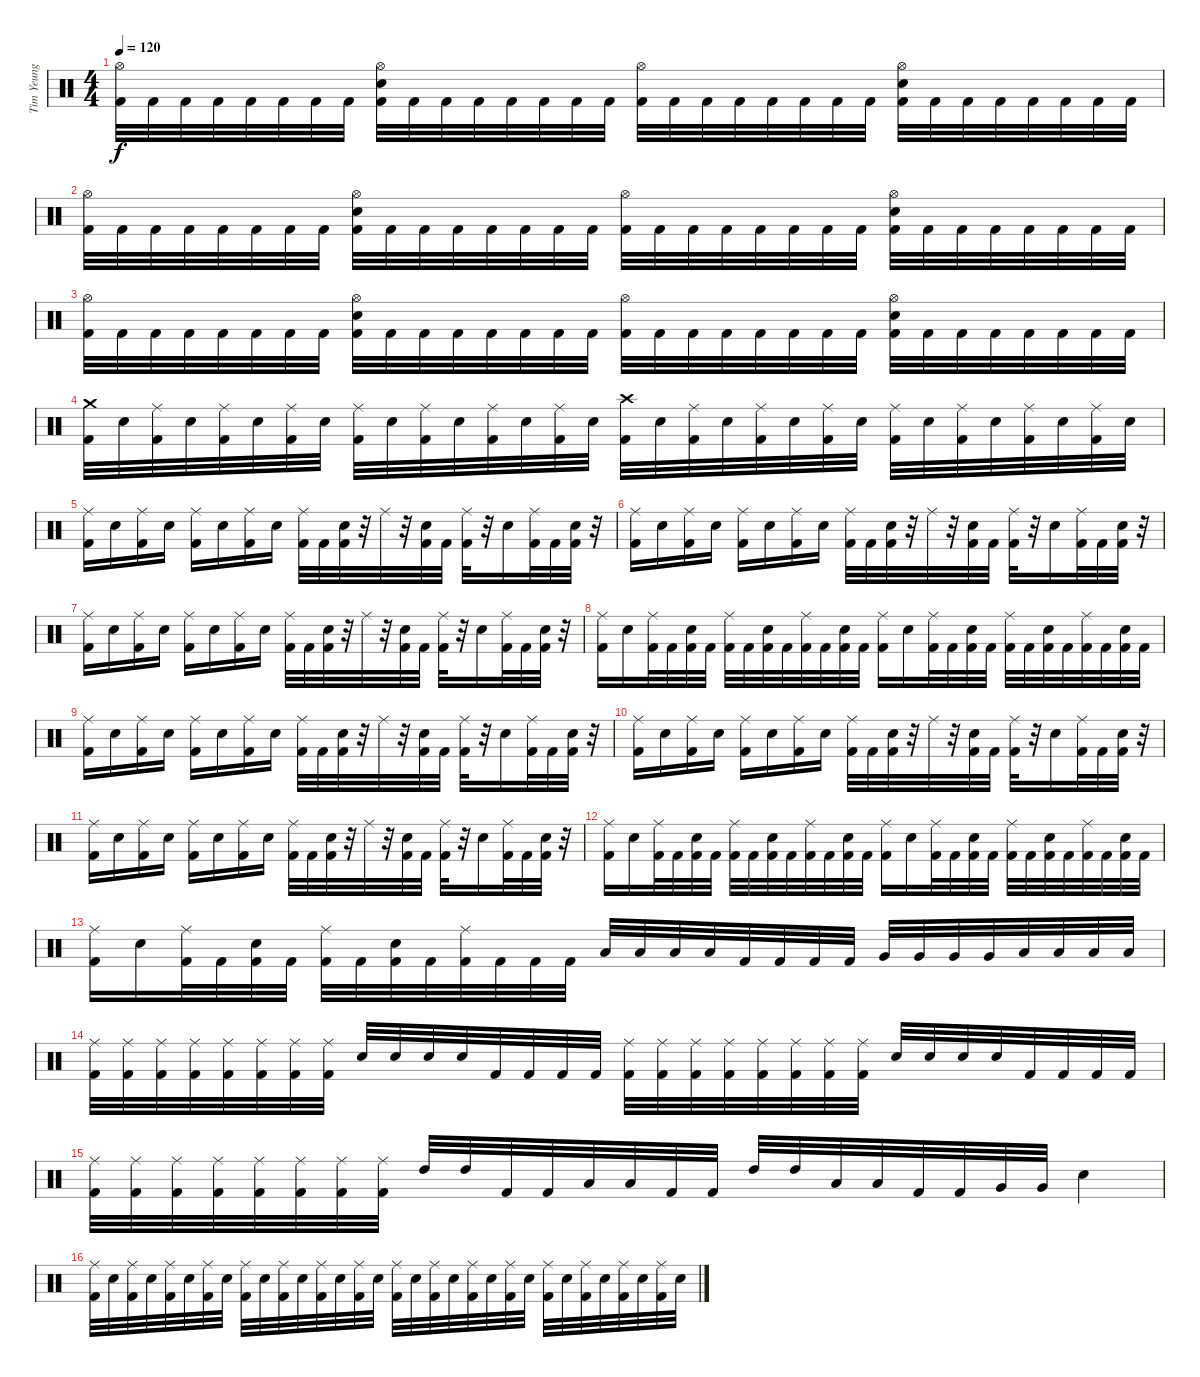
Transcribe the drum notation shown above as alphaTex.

\track ("Tim Yeung" "Tim Yeung") {instrument percussion}
\staff {score}
\articulation defaults
\ts (4 4)
\tempo 120
\clef neutral
\ks c
("Hi-Hat (open)" "Kick (hit) 2").32{dy f} "Kick (hit) 2".32 "Kick (hit) 2".32 "Kick (hit) 2".32 "Kick (hit) 2".32 "Kick (hit) 2".32 "Kick (hit) 2".32 "Kick (hit) 2".32 ("Hi-Hat (open)" "Electric Snare (hit)" "Kick (hit) 2").32 "Kick (hit) 2".32 "Kick (hit) 2".32 "Kick (hit) 2".32 "Kick (hit) 2".32 "Kick (hit) 2".32 "Kick (hit) 2".32 "Kick (hit) 2".32 ("Hi-Hat (open)" "Kick (hit) 2").32 "Kick (hit) 2".32 "Kick (hit) 2".32 "Kick (hit) 2".32 "Kick (hit) 2".32 "Kick (hit) 2".32 "Kick (hit) 2".32 "Kick (hit) 2".32 ("Hi-Hat (open)" "Electric Snare (hit)" "Kick (hit) 2").32 "Kick (hit) 2".32 "Kick (hit) 2".32 "Kick (hit) 2".32 "Kick (hit) 2".32 "Kick (hit) 2".32 "Kick (hit) 2".32 "Kick (hit) 2".32 |
("Hi-Hat (open)" "Kick (hit) 2").32 "Kick (hit) 2".32 "Kick (hit) 2".32 "Kick (hit) 2".32 "Kick (hit) 2".32 "Kick (hit) 2".32 "Kick (hit) 2".32 "Kick (hit) 2".32 ("Hi-Hat (open)" "Electric Snare (hit)" "Kick (hit) 2").32 "Kick (hit) 2".32 "Kick (hit) 2".32 "Kick (hit) 2".32 "Kick (hit) 2".32 "Kick (hit) 2".32 "Kick (hit) 2".32 "Kick (hit) 2".32 ("Hi-Hat (open)" "Kick (hit) 2").32 "Kick (hit) 2".32 "Kick (hit) 2".32 "Kick (hit) 2".32 "Kick (hit) 2".32 "Kick (hit) 2".32 "Kick (hit) 2".32 "Kick (hit) 2".32 ("Hi-Hat (open)" "Electric Snare (hit)" "Kick (hit) 2").32 "Kick (hit) 2".32 "Kick (hit) 2".32 "Kick (hit) 2".32 "Kick (hit) 2".32 "Kick (hit) 2".32 "Kick (hit) 2".32 "Kick (hit) 2".32 |
("Hi-Hat (open)" "Kick (hit) 2").32 "Kick (hit) 2".32 "Kick (hit) 2".32 "Kick (hit) 2".32 "Kick (hit) 2".32 "Kick (hit) 2".32 "Kick (hit) 2".32 "Kick (hit) 2".32 ("Hi-Hat (open)" "Electric Snare (hit)" "Kick (hit) 2").32 "Kick (hit) 2".32 "Kick (hit) 2".32 "Kick (hit) 2".32 "Kick (hit) 2".32 "Kick (hit) 2".32 "Kick (hit) 2".32 "Kick (hit) 2".32 ("Hi-Hat (open)" "Kick (hit) 2").32 "Kick (hit) 2".32 "Kick (hit) 2".32 "Kick (hit) 2".32 "Kick (hit) 2".32 "Kick (hit) 2".32 "Kick (hit) 2".32 "Kick (hit) 2".32 ("Hi-Hat (open)" "Electric Snare (hit)" "Kick (hit) 2").32 "Kick (hit) 2".32 "Kick (hit) 2".32 "Kick (hit) 2".32 "Kick (hit) 2".32 "Kick (hit) 2".32 "Kick (hit) 2".32 "Kick (hit) 2".32 |
("Crash medium (hit)" "Kick (hit) 2").32 "Electric Snare (hit)".32 ("Ride (middle)" "Kick (hit) 2").32 "Electric Snare (hit)".32 ("Ride (middle)" "Kick (hit) 2").32 "Electric Snare (hit)".32 ("Ride (middle)" "Kick (hit) 2").32 "Electric Snare (hit)".32 ("Ride (middle)" "Kick (hit) 2").32 "Electric Snare (hit)".32 ("Ride (middle)" "Kick (hit) 2").32 "Electric Snare (hit)".32 ("Ride (middle)" "Kick (hit) 2").32 "Electric Snare (hit)".32 ("Ride (middle)" "Kick (hit) 2").32 "Electric Snare (hit)".32 ("Crash high (hit)" "Kick (hit) 2").32 "Electric Snare (hit)".32 ("Ride (middle)" "Kick (hit) 2").32 "Electric Snare (hit)".32 ("Ride (middle)" "Kick (hit) 2").32 "Electric Snare (hit)".32 ("Ride (middle)" "Kick (hit) 2").32 "Electric Snare (hit)".32 ("Ride (middle)" "Kick (hit) 2").32 "Electric Snare (hit)".32 ("Ride (middle)" "Kick (hit) 2").32 "Electric Snare (hit)".32 ("Ride (middle)" "Kick (hit) 2").32 "Electric Snare (hit)".32 ("Ride (middle)" "Kick (hit) 2").32 "Electric Snare (hit)".32 |
("Ride (middle)" "Kick (hit) 2").16 "Electric Snare (hit)".16 ("Ride (middle)" "Kick (hit) 2").16 "Electric Snare (hit)".16 ("Ride (middle)" "Kick (hit) 2").16 "Electric Snare (hit)".16 ("Ride (middle)" "Kick (hit) 2").16 "Electric Snare (hit)".16 ("Ride (middle)" "Kick (hit) 2").32 "Kick (hit) 2".32 ("Electric Snare (hit)" "Kick (hit) 2").32 r.32 "Ride (middle)".32 r.32 ("Electric Snare (hit)" "Kick (hit) 2").32 "Kick (hit) 2".32 ("Ride (middle)" "Kick (hit) 2").32 r.32 "Electric Snare (hit)".16 ("Ride (middle)" "Kick (hit) 2").32 "Kick (hit) 2".32 ("Electric Snare (hit)" "Kick (hit) 2").32 r.32 |
("Ride (middle)" "Kick (hit) 2").16 "Electric Snare (hit)".16 ("Ride (middle)" "Kick (hit) 2").16 "Electric Snare (hit)".16 ("Ride (middle)" "Kick (hit) 2").16 "Electric Snare (hit)".16 ("Ride (middle)" "Kick (hit) 2").16 "Electric Snare (hit)".16 ("Ride (middle)" "Kick (hit) 2").32 "Kick (hit) 2".32 ("Electric Snare (hit)" "Kick (hit) 2").32 r.32 "Ride (middle)".32 r.32 ("Electric Snare (hit)" "Kick (hit) 2").32 "Kick (hit) 2".32 ("Ride (middle)" "Kick (hit) 2").32 r.32 "Electric Snare (hit)".16 ("Ride (middle)" "Kick (hit) 2").32 "Kick (hit) 2".32 ("Electric Snare (hit)" "Kick (hit) 2").32 r.32 |
("Ride (middle)" "Kick (hit) 2").16 "Electric Snare (hit)".16 ("Ride (middle)" "Kick (hit) 2").16 "Electric Snare (hit)".16 ("Ride (middle)" "Kick (hit) 2").16 "Electric Snare (hit)".16 ("Ride (middle)" "Kick (hit) 2").16 "Electric Snare (hit)".16 ("Ride (middle)" "Kick (hit) 2").32 "Kick (hit) 2".32 ("Electric Snare (hit)" "Kick (hit) 2").32 r.32 "Ride (middle)".32 r.32 ("Electric Snare (hit)" "Kick (hit) 2").32 "Kick (hit) 2".32 ("Ride (middle)" "Kick (hit) 2").32 r.32 "Electric Snare (hit)".16 ("Ride (middle)" "Kick (hit) 2").32 "Kick (hit) 2".32 ("Electric Snare (hit)" "Kick (hit) 2").32 r.32 |
("Ride (middle)" "Kick (hit) 2").16 "Electric Snare (hit)".16 ("Ride (middle)" "Kick (hit) 2").32 "Kick (hit) 2".32 ("Electric Snare (hit)" "Kick (hit) 2").32 "Kick (hit) 2".32 ("Ride (middle)" "Kick (hit) 2").32 "Kick (hit) 2".32 ("Electric Snare (hit)" "Kick (hit) 2").32 "Kick (hit) 2".32 ("Ride (middle)" "Kick (hit) 2").32 "Kick (hit) 2".32 ("Electric Snare (hit)" "Kick (hit) 2").32 "Kick (hit) 2".32 ("Ride (middle)" "Kick (hit) 2").16 "Electric Snare (hit)".16 ("Ride (middle)" "Kick (hit) 2").32 "Kick (hit) 2".32 ("Electric Snare (hit)" "Kick (hit) 2").32 "Kick (hit) 2".32 ("Ride (middle)" "Kick (hit) 2").32 "Kick (hit) 2".32 ("Electric Snare (hit)" "Kick (hit) 2").32 "Kick (hit) 2".32 ("Ride (middle)" "Kick (hit) 2").32 "Kick (hit) 2".32 ("Electric Snare (hit)" "Kick (hit) 2").32 "Kick (hit) 2".32 |
("Ride (middle)" "Kick (hit) 2").16 "Electric Snare (hit)".16 ("Ride (middle)" "Kick (hit) 2").16 "Electric Snare (hit)".16 ("Ride (middle)" "Kick (hit) 2").16 "Electric Snare (hit)".16 ("Ride (middle)" "Kick (hit) 2").16 "Electric Snare (hit)".16 ("Ride (middle)" "Kick (hit) 2").32 "Kick (hit) 2".32 ("Electric Snare (hit)" "Kick (hit) 2").32 r.32 "Ride (middle)".32 r.32 ("Electric Snare (hit)" "Kick (hit) 2").32 "Kick (hit) 2".32 ("Ride (middle)" "Kick (hit) 2").32 r.32 "Electric Snare (hit)".16 ("Ride (middle)" "Kick (hit) 2").32 "Kick (hit) 2".32 ("Electric Snare (hit)" "Kick (hit) 2").32 r.32 |
("Ride (middle)" "Kick (hit) 2").16 "Electric Snare (hit)".16 ("Ride (middle)" "Kick (hit) 2").16 "Electric Snare (hit)".16 ("Ride (middle)" "Kick (hit) 2").16 "Electric Snare (hit)".16 ("Ride (middle)" "Kick (hit) 2").16 "Electric Snare (hit)".16 ("Ride (middle)" "Kick (hit) 2").32 "Kick (hit) 2".32 ("Electric Snare (hit)" "Kick (hit) 2").32 r.32 "Ride (middle)".32 r.32 ("Electric Snare (hit)" "Kick (hit) 2").32 "Kick (hit) 2".32 ("Ride (middle)" "Kick (hit) 2").32 r.32 "Electric Snare (hit)".16 ("Ride (middle)" "Kick (hit) 2").32 "Kick (hit) 2".32 ("Electric Snare (hit)" "Kick (hit) 2").32 r.32 |
("Ride (middle)" "Kick (hit) 2").16 "Electric Snare (hit)".16 ("Ride (middle)" "Kick (hit) 2").16 "Electric Snare (hit)".16 ("Ride (middle)" "Kick (hit) 2").16 "Electric Snare (hit)".16 ("Ride (middle)" "Kick (hit) 2").16 "Electric Snare (hit)".16 ("Ride (middle)" "Kick (hit) 2").32 "Kick (hit) 2".32 ("Electric Snare (hit)" "Kick (hit) 2").32 r.32 "Ride (middle)".32 r.32 ("Electric Snare (hit)" "Kick (hit) 2").32 "Kick (hit) 2".32 ("Ride (middle)" "Kick (hit) 2").32 r.32 "Electric Snare (hit)".16 ("Ride (middle)" "Kick (hit) 2").32 "Kick (hit) 2".32 ("Electric Snare (hit)" "Kick (hit) 2").32 r.32 |
("Ride (middle)" "Kick (hit) 2").16 "Electric Snare (hit)".16 ("Ride (middle)" "Kick (hit) 2").32 "Kick (hit) 2".32 ("Electric Snare (hit)" "Kick (hit) 2").32 "Kick (hit) 2".32 ("Ride (middle)" "Kick (hit) 2").32 "Kick (hit) 2".32 ("Electric Snare (hit)" "Kick (hit) 2").32 "Kick (hit) 2".32 ("Ride (middle)" "Kick (hit) 2").32 "Kick (hit) 2".32 ("Electric Snare (hit)" "Kick (hit) 2").32 "Kick (hit) 2".32 ("Ride (middle)" "Kick (hit) 2").16 "Electric Snare (hit)".16 ("Ride (middle)" "Kick (hit) 2").32 "Kick (hit) 2".32 ("Electric Snare (hit)" "Kick (hit) 2").32 "Kick (hit) 2".32 ("Ride (middle)" "Kick (hit) 2").32 "Kick (hit) 2".32 ("Electric Snare (hit)" "Kick (hit) 2").32 "Kick (hit) 2".32 ("Ride (middle)" "Kick (hit) 2").32 "Kick (hit) 2".32 ("Electric Snare (hit)" "Kick (hit) 2").32 "Kick (hit) 2".32 |
("Ride (middle)" "Kick (hit) 2").16 "Electric Snare (hit)".16 ("Ride (middle)" "Kick (hit) 2").32 "Kick (hit) 2".32 ("Electric Snare (hit)" "Kick (hit) 2").32 "Kick (hit) 2".32 ("Ride (middle)" "Kick (hit) 2").32 "Kick (hit) 2".32 ("Electric Snare (hit)" "Kick (hit) 2").32 "Kick (hit) 2".32 ("Ride (middle)" "Kick (hit) 2").32 "Kick (hit) 2".32 "Kick (hit) 2".32 "Kick (hit) 2".32 "Low Tom (hit)".32 "Low Tom (hit)".32 "Low Tom (hit)".32 "Low Tom (hit)".32 "Kick (hit) 2".32 "Kick (hit) 2".32 "Kick (hit) 2".32 "Kick (hit) 2".32 "Very Low Tom (hit)".32 "Very Low Tom (hit)".32 "Very Low Tom (hit)".32 "Very Low Tom (hit)".32 "Low Floor Tom (hit)".32 "Low Floor Tom (hit)".32 "Low Floor Tom (hit)".32 "Low Floor Tom (hit)".32 |
("Ride (middle)" "Kick (hit) 2").32 ("Ride (middle)" "Kick (hit) 2").32 ("Ride (middle)" "Kick (hit) 2").32 ("Ride (middle)" "Kick (hit) 2").32 ("Ride (middle)" "Kick (hit) 2").32 ("Ride (middle)" "Kick (hit) 2").32 ("Ride (middle)" "Kick (hit) 2").32 ("Ride (middle)" "Kick (hit) 2").32 "Electric Snare (hit)".32 "Electric Snare (hit)".32 "Electric Snare (hit)".32 "Electric Snare (hit)".32 "Kick (hit) 2".32 "Kick (hit) 2".32 "Kick (hit) 2".32 "Kick (hit) 2".32 ("Ride (middle)" "Kick (hit) 2").32 ("Ride (middle)" "Kick (hit) 2").32 ("Ride (middle)" "Kick (hit) 2").32 ("Ride (middle)" "Kick (hit) 2").32 ("Ride (middle)" "Kick (hit) 2").32 ("Ride (middle)" "Kick (hit) 2").32 ("Ride (middle)" "Kick (hit) 2").32 ("Ride (middle)" "Kick (hit) 2").32 "Electric Snare (hit)".32 "Electric Snare (hit)".32 "Electric Snare (hit)".32 "Electric Snare (hit)".32 "Kick (hit) 2".32 "Kick (hit) 2".32 "Kick (hit) 2".32 "Kick (hit) 2".32 |
("Ride (middle)" "Kick (hit) 2").32 ("Ride (middle)" "Kick (hit) 2").32 ("Ride (middle)" "Kick (hit) 2").32 ("Ride (middle)" "Kick (hit) 2").32 ("Ride (middle)" "Kick (hit) 2").32 ("Ride (middle)" "Kick (hit) 2").32 ("Ride (middle)" "Kick (hit) 2").32 ("Ride (middle)" "Kick (hit) 2").32 "High Tom (hit)".32 "High Tom (hit)".32 "Kick (hit) 2".32 "Kick (hit) 2".32 "Low Tom (hit)".32 "Low Tom (hit)".32 "Kick (hit) 2".32 "Kick (hit) 2".32 "High Tom (hit)".32 "High Tom (hit)".32 "Low Tom (hit)".32 "Low Tom (hit)".32 "Kick (hit) 2".32 "Kick (hit) 2".32 "Very Low Tom (hit)".32 "Very Low Tom (hit)".32 "Electric Snare (hit)".4 |
("Ride (middle)" "Kick (hit) 2").32 "Electric Snare (hit)".32 ("Ride (middle)" "Kick (hit) 2").32 "Electric Snare (hit)".32 ("Ride (middle)" "Kick (hit) 2").32 "Electric Snare (hit)".32 ("Ride (middle)" "Kick (hit) 2").32 "Electric Snare (hit)".32 ("Ride (middle)" "Kick (hit) 2").32 "Electric Snare (hit)".32 ("Ride (middle)" "Kick (hit) 2").32 "Electric Snare (hit)".32 ("Ride (middle)" "Kick (hit) 2").32 "Electric Snare (hit)".32 ("Ride (middle)" "Kick (hit) 2").32 "Electric Snare (hit)".32 ("Ride (middle)" "Kick (hit) 2").32 "Electric Snare (hit)".32 ("Ride (middle)" "Kick (hit) 2").32 "Electric Snare (hit)".32 ("Ride (middle)" "Kick (hit) 2").32 "Electric Snare (hit)".32 ("Ride (middle)" "Kick (hit) 2").32 "Electric Snare (hit)".32 ("Ride (middle)" "Kick (hit) 2").32 "Electric Snare (hit)".32 ("Ride (middle)" "Kick (hit) 2").32 "Electric Snare (hit)".32 ("Ride (middle)" "Kick (hit) 2").32 "Electric Snare (hit)".32 ("Ride (middle)" "Kick (hit) 2").32 "Electric Snare (hit)".32
